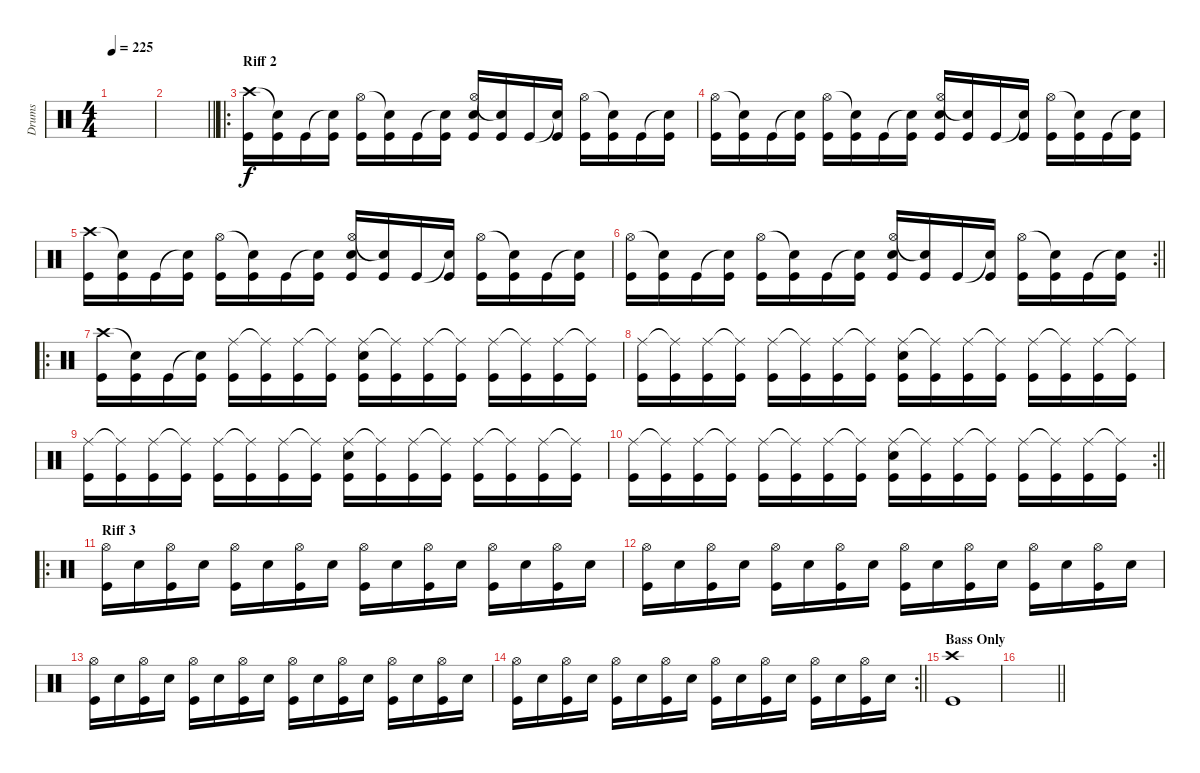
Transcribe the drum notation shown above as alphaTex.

\track ("Drums" "Drums") {instrument percussion}
\staff {score}
\articulation defaults
\ts (4 4)
\tempo 225
\clef neutral
\ks c
|
\barLineRight lightlight
|
\ro
\section ("" "Riff 2")
("Crash high (hit)" "Kick (hit)").16 ("Snare (hit)"{t} "Kick (hit)").16 "Kick (hit)".16 ("Snare (hit)"{t} "Kick (hit)").16 ("Hi-Hat (open)" "Kick (hit)").16 ("Snare (hit)"{t} "Kick (hit)").16 "Kick (hit)".16 ("Snare (hit)"{t} "Kick (hit)").16 ("Hi-Hat (open)" "Electric Snare (hit)" "Kick (hit)").16 ("Snare (hit)"{t} "Kick (hit)").16 "Kick (hit)".16 ("Snare (hit)"{t} "Kick (hit)").16 ("Hi-Hat (open)" "Kick (hit)").16 ("Snare (hit)"{t} "Kick (hit)").16 "Kick (hit)".16 ("Snare (hit)"{t} "Kick (hit)").16 |
("Hi-Hat (open)" "Kick (hit)").16 ("Snare (hit)"{t} "Kick (hit)").16 "Kick (hit)".16 ("Snare (hit)"{t} "Kick (hit)").16 ("Hi-Hat (open)" "Kick (hit)").16 ("Snare (hit)"{t} "Kick (hit)").16 "Kick (hit)".16 ("Snare (hit)"{t} "Kick (hit)").16 ("Hi-Hat (open)" "Electric Snare (hit)" "Kick (hit)").16 ("Snare (hit)"{t} "Kick (hit)").16 "Kick (hit)".16 ("Snare (hit)"{t} "Kick (hit)").16 ("Hi-Hat (open)" "Kick (hit)").16 ("Snare (hit)"{t} "Kick (hit)").16 "Kick (hit)".16 ("Snare (hit)"{t} "Kick (hit)").16 |
("Crash high (hit)" "Kick (hit)").16 ("Snare (hit)"{t} "Kick (hit)").16 "Kick (hit)".16 ("Snare (hit)"{t} "Kick (hit)").16 ("Hi-Hat (open)" "Kick (hit)").16 ("Snare (hit)"{t} "Kick (hit)").16 "Kick (hit)".16 ("Snare (hit)"{t} "Kick (hit)").16 ("Hi-Hat (open)" "Electric Snare (hit)" "Kick (hit)").16 ("Snare (hit)"{t} "Kick (hit)").16 "Kick (hit)".16 ("Snare (hit)"{t} "Kick (hit)").16 ("Hi-Hat (open)" "Kick (hit)").16 ("Snare (hit)"{t} "Kick (hit)").16 "Kick (hit)".16 ("Snare (hit)"{t} "Kick (hit)").16 |
\rc 2
\barLineRight lightlight
("Hi-Hat (open)" "Kick (hit)").16 ("Snare (hit)"{t} "Kick (hit)").16 "Kick (hit)".16 ("Snare (hit)"{t} "Kick (hit)").16 ("Hi-Hat (open)" "Kick (hit)").16 ("Snare (hit)"{t} "Kick (hit)").16 "Kick (hit)".16 ("Snare (hit)"{t} "Kick (hit)").16 ("Hi-Hat (open)" "Electric Snare (hit)" "Kick (hit)").16 ("Snare (hit)"{t} "Kick (hit)").16 "Kick (hit)".16 ("Snare (hit)"{t} "Kick (hit)").16 ("Hi-Hat (open)" "Kick (hit)").16 ("Snare (hit)"{t} "Kick (hit)").16 "Kick (hit)".16 ("Snare (hit)"{t} "Kick (hit)").16 |
\ro
("Crash high (hit)" "Kick (hit)").16 ("Snare (hit)"{t} "Kick (hit)").16 "Kick (hit)".16 ("Snare (hit)"{t} "Kick (hit)").16 ("Ride (middle)" "Kick (hit)").16 ("Ride (middle)"{t} "Kick (hit)").16 ("Ride (middle)" "Kick (hit)").16 ("Ride (middle)"{t} "Kick (hit)").16 ("Ride (middle)" "Electric Snare (hit)" "Kick (hit)").16 ("Ride (middle)"{t} "Kick (hit)").16 ("Ride (middle)" "Kick (hit)").16 ("Ride (middle)"{t} "Kick (hit)").16 ("Ride (middle)" "Kick (hit)").16 ("Ride (middle)"{t} "Kick (hit)").16 ("Ride (middle)" "Kick (hit)").16 ("Ride (middle)"{t} "Kick (hit)").16 |
("Ride (middle)" "Kick (hit)").16 ("Ride (middle)"{t} "Kick (hit)").16 ("Ride (middle)" "Kick (hit)").16 ("Ride (middle)"{t} "Kick (hit)").16 ("Ride (middle)" "Kick (hit)").16 ("Ride (middle)"{t} "Kick (hit)").16 ("Ride (middle)" "Kick (hit)").16 ("Ride (middle)"{t} "Kick (hit)").16 ("Ride (middle)" "Electric Snare (hit)" "Kick (hit)").16 ("Ride (middle)"{t} "Kick (hit)").16 ("Ride (middle)" "Kick (hit)").16 ("Ride (middle)"{t} "Kick (hit)").16 ("Ride (middle)" "Kick (hit)").16 ("Ride (middle)"{t} "Kick (hit)").16 ("Ride (middle)" "Kick (hit)").16 ("Ride (middle)"{t} "Kick (hit)").16 |
("Ride (middle)" "Kick (hit)").16 ("Ride (middle)"{t} "Kick (hit)").16 ("Ride (middle)" "Kick (hit)").16 ("Ride (middle)"{t} "Kick (hit)").16 ("Ride (middle)" "Kick (hit)").16 ("Ride (middle)"{t} "Kick (hit)").16 ("Ride (middle)" "Kick (hit)").16 ("Ride (middle)"{t} "Kick (hit)").16 ("Ride (middle)" "Electric Snare (hit)" "Kick (hit)").16 ("Ride (middle)"{t} "Kick (hit)").16 ("Ride (middle)" "Kick (hit)").16 ("Ride (middle)"{t} "Kick (hit)").16 ("Ride (middle)" "Kick (hit)").16 ("Ride (middle)"{t} "Kick (hit)").16 ("Ride (middle)" "Kick (hit)").16 ("Ride (middle)"{t} "Kick (hit)").16 |
\rc 2
\barLineRight lightlight
("Ride (middle)" "Kick (hit)").16 ("Ride (middle)"{t} "Kick (hit)").16 ("Ride (middle)" "Kick (hit)").16 ("Ride (middle)"{t} "Kick (hit)").16 ("Ride (middle)" "Kick (hit)").16 ("Ride (middle)"{t} "Kick (hit)").16 ("Ride (middle)" "Kick (hit)").16 ("Ride (middle)"{t} "Kick (hit)").16 ("Ride (middle)" "Electric Snare (hit)" "Kick (hit)").16 ("Ride (middle)"{t} "Kick (hit)").16 ("Ride (middle)" "Kick (hit)").16 ("Ride (middle)"{t} "Kick (hit)").16 ("Ride (middle)" "Kick (hit)").16 ("Ride (middle)"{t} "Kick (hit)").16 ("Ride (middle)" "Kick (hit)").16 ("Ride (middle)"{t} "Kick (hit)").16 |
\ro
\section ("" "Riff 3")
("Hi-Hat (open)" "Kick (hit)").16 "Electric Snare (hit)".16 ("Hi-Hat (open)" "Kick (hit)").16 "Electric Snare (hit)".16 ("Hi-Hat (open)" "Kick (hit)").16 "Electric Snare (hit)".16 ("Hi-Hat (open)" "Kick (hit)").16 "Electric Snare (hit)".16 ("Hi-Hat (open)" "Kick (hit)").16 "Electric Snare (hit)".16 ("Hi-Hat (open)" "Kick (hit)").16 "Electric Snare (hit)".16 ("Hi-Hat (open)" "Kick (hit)").16 "Electric Snare (hit)".16 ("Hi-Hat (open)" "Kick (hit)").16 "Electric Snare (hit)".16 |
("Hi-Hat (open)" "Kick (hit)").16 "Electric Snare (hit)".16 ("Hi-Hat (open)" "Kick (hit)").16 "Electric Snare (hit)".16 ("Hi-Hat (open)" "Kick (hit)").16 "Electric Snare (hit)".16 ("Hi-Hat (open)" "Kick (hit)").16 "Electric Snare (hit)".16 ("Hi-Hat (open)" "Kick (hit)").16 "Electric Snare (hit)".16 ("Hi-Hat (open)" "Kick (hit)").16 "Electric Snare (hit)".16 ("Hi-Hat (open)" "Kick (hit)").16 "Electric Snare (hit)".16 ("Hi-Hat (open)" "Kick (hit)").16 "Electric Snare (hit)".16 |
("Hi-Hat (open)" "Kick (hit)").16 "Electric Snare (hit)".16 ("Hi-Hat (open)" "Kick (hit)").16 "Electric Snare (hit)".16 ("Hi-Hat (open)" "Kick (hit)").16 "Electric Snare (hit)".16 ("Hi-Hat (open)" "Kick (hit)").16 "Electric Snare (hit)".16 ("Hi-Hat (open)" "Kick (hit)").16 "Electric Snare (hit)".16 ("Hi-Hat (open)" "Kick (hit)").16 "Electric Snare (hit)".16 ("Hi-Hat (open)" "Kick (hit)").16 "Electric Snare (hit)".16 ("Hi-Hat (open)" "Kick (hit)").16 "Electric Snare (hit)".16 |
\rc 2
\barLineRight lightlight
("Hi-Hat (open)" "Kick (hit)").16 "Electric Snare (hit)".16 ("Hi-Hat (open)" "Kick (hit)").16 "Electric Snare (hit)".16 ("Hi-Hat (open)" "Kick (hit)").16 "Electric Snare (hit)".16 ("Hi-Hat (open)" "Kick (hit)").16 "Electric Snare (hit)".16 ("Hi-Hat (open)" "Kick (hit)").16 "Electric Snare (hit)".16 ("Hi-Hat (open)" "Kick (hit)").16 "Electric Snare (hit)".16 ("Hi-Hat (open)" "Kick (hit)").16 "Electric Snare (hit)".16 ("Hi-Hat (open)" "Kick (hit)").16 "Electric Snare (hit)".16 |
\section ("" "Bass Only")
("Crash high (hit)" "Kick (hit)").1 |
\barLineRight lightlight
